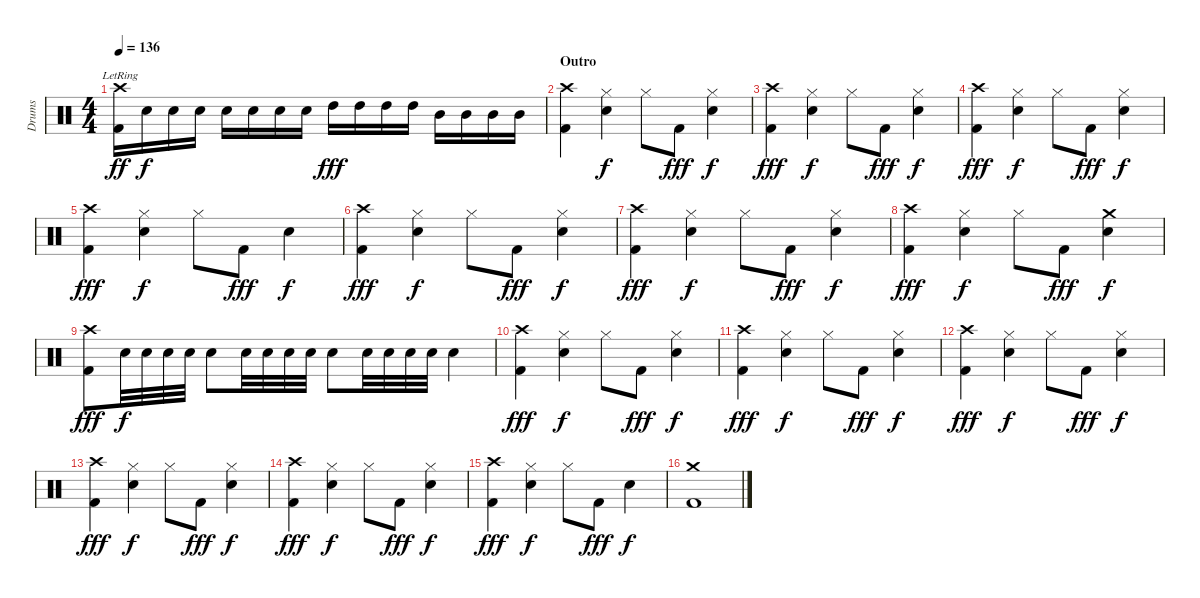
\track ("Drums" "Drums") {instrument percussion}
\staff {score}
\articulation defaults
\ts (4 4)
\tempo 136
\clef neutral
\ks c
("Crash high (hit)"{lr} "Kick (hit) 2").16{txt " " dy ff} "Snare (hit) 2".16{dy f} "Snare (hit) 2".16 "Snare (hit) 2".16 "Snare (hit) 2".16 "Snare (hit) 2".16 "Snare (hit) 2".16 "Snare (hit) 2".16 "High Tom (hit)".16{dy fff} "High Tom (hit)".16 "High Tom (hit)".16 "High Tom (hit)".16 "Mid Tom (hit)".16 "Mid Tom (hit)".16 "Mid Tom (hit)".16 "Mid Tom (hit)".16 |
\section ("" "Outro")
("Crash high (hit)" "Kick (hit) 2").4{txt " "} ("Hi-Hat (closed)" "Snare (hit) 2").4{dy f} "Hi-Hat (closed)".8 "Kick (hit) 2".8{dy fff} ("Hi-Hat (closed)" "Snare (hit) 2").4{dy f} |
("Crash high (hit)" "Kick (hit) 2").4{txt " " dy fff} ("Hi-Hat (closed)" "Snare (hit) 2").4{dy f} "Hi-Hat (closed)".8 "Kick (hit) 2".8{dy fff} ("Hi-Hat (closed)" "Snare (hit) 2").4{dy f} |
("Crash high (hit)" "Kick (hit) 2").4{txt " " dy fff} ("Hi-Hat (closed)" "Snare (hit) 2").4{dy f} "Hi-Hat (closed)".8 "Kick (hit) 2".8{dy fff} ("Hi-Hat (closed)" "Snare (hit) 2").4{dy f} |
("Crash high (hit)" "Kick (hit) 2").4{txt " " dy fff} ("Hi-Hat (closed)" "Snare (hit) 2").4{dy f} "Hi-Hat (closed)".8 "Kick (hit) 2".8{dy fff} "Snare (hit) 2".4{dy f} |
("Crash high (hit)" "Kick (hit) 2").4{txt " " dy fff} ("Hi-Hat (closed)" "Snare (hit) 2").4{dy f} "Hi-Hat (closed)".8 "Kick (hit) 2".8{dy fff} ("Hi-Hat (closed)" "Snare (hit) 2").4{dy f} |
("Crash high (hit)" "Kick (hit) 2").4{txt " " dy fff} ("Hi-Hat (closed)" "Snare (hit) 2").4{dy f} "Hi-Hat (closed)".8 "Kick (hit) 2".8{dy fff} ("Hi-Hat (closed)" "Snare (hit) 2").4{dy f} |
("Crash high (hit)" "Kick (hit) 2").4{txt " " dy fff} ("Hi-Hat (closed)" "Snare (hit) 2").4{dy f} "Hi-Hat (closed)".8 "Kick (hit) 2".8{dy fff} ("Crash medium (hit)" "Snare (hit) 2").4{dy f} |
("Crash high (hit)" "Kick (hit) 2").8{txt " " dy fff} "Snare (hit) 2".32{dy f} "Snare (hit) 2".32 "Snare (hit) 2".32 "Snare (hit) 2".32 "Snare (hit) 2".8 "Snare (hit) 2".32 "Snare (hit) 2".32 "Snare (hit) 2".32 "Snare (hit) 2".32 "Snare (hit) 2".8 "Snare (hit) 2".32 "Snare (hit) 2".32 "Snare (hit) 2".32 "Snare (hit) 2".32 "Snare (hit) 2".4 |
("Crash high (hit)" "Kick (hit) 2").4{txt " " dy fff} ("Hi-Hat (closed)" "Snare (hit) 2").4{dy f} "Hi-Hat (closed)".8 "Kick (hit) 2".8{dy fff} ("Hi-Hat (closed)" "Snare (hit) 2").4{dy f} |
("Crash high (hit)" "Kick (hit) 2").4{txt " " dy fff} ("Hi-Hat (closed)" "Snare (hit) 2").4{dy f} "Hi-Hat (closed)".8 "Kick (hit) 2".8{dy fff} ("Hi-Hat (closed)" "Snare (hit) 2").4{dy f} |
("Crash high (hit)" "Kick (hit) 2").4{txt " " dy fff} ("Hi-Hat (closed)" "Snare (hit) 2").4{dy f} "Hi-Hat (closed)".8 "Kick (hit) 2".8{dy fff} ("Hi-Hat (closed)" "Snare (hit) 2").4{dy f} |
("Crash high (hit)" "Kick (hit) 2").4{txt " " dy fff} ("Hi-Hat (closed)" "Snare (hit) 2").4{dy f} "Hi-Hat (closed)".8 "Kick (hit) 2".8{dy fff} ("Hi-Hat (closed)" "Snare (hit) 2").4{dy f} |
("Crash high (hit)" "Kick (hit) 2").4{txt " " dy fff} ("Hi-Hat (closed)" "Snare (hit) 2").4{dy f} "Hi-Hat (closed)".8 "Kick (hit) 2".8{dy fff} ("Hi-Hat (closed)" "Snare (hit) 2").4{dy f} |
("Crash high (hit)" "Kick (hit) 2").4{txt " " dy fff} ("Hi-Hat (closed)" "Snare (hit) 2").4{dy f} "Hi-Hat (closed)".8 "Kick (hit) 2".8{dy fff} "Snare (hit) 2".4{dy f} |
("Crash medium (hit)" "Kick (hit) 2").1
